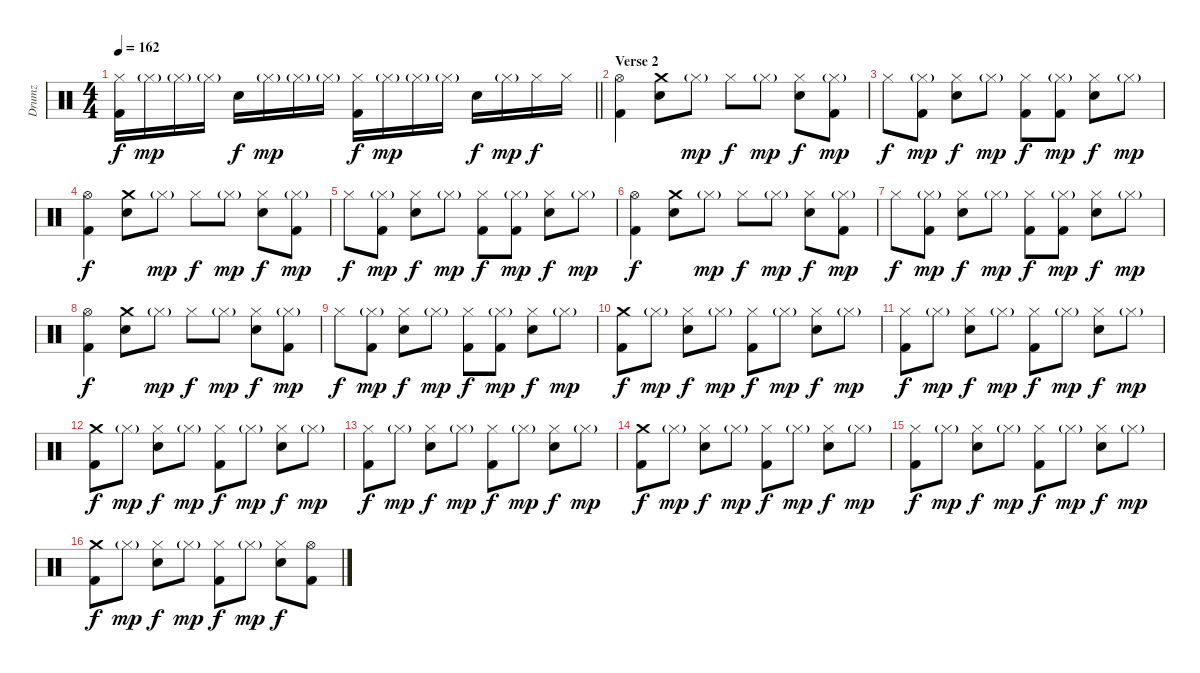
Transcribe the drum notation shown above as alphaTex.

\track ("Drumz" "Drumz") {instrument percussion}
\staff {score}
\articulation defaults
\ts (4 4)
\tempo 162
\clef neutral
\barLineRight lightlight
\ks c
("Hi-Hat (closed)" "Kick (hit) 2").16{dy f} "Hi-Hat (closed)"{g}.16{dy mp} "Hi-Hat (closed)"{g}.16 "Hi-Hat (closed)"{g}.16 "Electric Snare (hit)".16{dy f} "Hi-Hat (closed)"{g}.16{dy mp} "Hi-Hat (closed)"{g}.16 "Hi-Hat (closed)"{g}.16 ("Hi-Hat (closed)" "Kick (hit) 2").16{dy f} "Hi-Hat (closed)"{g}.16{dy mp} "Hi-Hat (closed)"{g}.16 "Hi-Hat (closed)"{g}.16 "Electric Snare (hit)".16{dy f} "Hi-Hat (closed)"{g}.16{dy mp} "Hi-Hat (closed)".16{dy f} "Hi-Hat (closed)".16 |
\section ("" "Verse 2")
("Hi-Hat (open)" "Kick (hit) 2").4 ("Crash medium (hit)" "Electric Snare (hit)").8 "Hi-Hat (closed)"{g}.8{dy mp} "Hi-Hat (closed)".8{dy f} "Hi-Hat (closed)"{g}.8{dy mp} ("Hi-Hat (closed)" "Electric Snare (hit)").8{dy f} ("Hi-Hat (closed)"{g} "Kick (hit) 2").8{dy mp} |
"Hi-Hat (closed)".8{dy f} ("Hi-Hat (closed)"{g} "Kick (hit) 2").8{dy mp} ("Hi-Hat (closed)" "Electric Snare (hit)").8{dy f} "Hi-Hat (closed)"{g}.8{dy mp} ("Hi-Hat (closed)" "Kick (hit) 2").8{dy f} ("Hi-Hat (closed)"{g} "Kick (hit) 2").8{dy mp} ("Hi-Hat (closed)" "Electric Snare (hit)").8{dy f} "Hi-Hat (closed)"{g}.8{dy mp} |
("Hi-Hat (open)" "Kick (hit) 2").4{dy f} ("Crash medium (hit)" "Electric Snare (hit)").8 "Hi-Hat (closed)"{g}.8{dy mp} "Hi-Hat (closed)".8{dy f} "Hi-Hat (closed)"{g}.8{dy mp} ("Hi-Hat (closed)" "Electric Snare (hit)").8{dy f} ("Hi-Hat (closed)"{g} "Kick (hit) 2").8{dy mp} |
"Hi-Hat (closed)".8{dy f} ("Hi-Hat (closed)"{g} "Kick (hit) 2").8{dy mp} ("Hi-Hat (closed)" "Electric Snare (hit)").8{dy f} "Hi-Hat (closed)"{g}.8{dy mp} ("Hi-Hat (closed)" "Kick (hit) 2").8{dy f} ("Hi-Hat (closed)"{g} "Kick (hit) 2").8{dy mp} ("Hi-Hat (closed)" "Electric Snare (hit)").8{dy f} "Hi-Hat (closed)"{g}.8{dy mp} |
("Hi-Hat (open)" "Kick (hit) 2").4{dy f} ("Crash medium (hit)" "Electric Snare (hit)").8 "Hi-Hat (closed)"{g}.8{dy mp} "Hi-Hat (closed)".8{dy f} "Hi-Hat (closed)"{g}.8{dy mp} ("Hi-Hat (closed)" "Electric Snare (hit)").8{dy f} ("Hi-Hat (closed)"{g} "Kick (hit) 2").8{dy mp} |
"Hi-Hat (closed)".8{dy f} ("Hi-Hat (closed)"{g} "Kick (hit) 2").8{dy mp} ("Hi-Hat (closed)" "Electric Snare (hit)").8{dy f} "Hi-Hat (closed)"{g}.8{dy mp} ("Hi-Hat (closed)" "Kick (hit) 2").8{dy f} ("Hi-Hat (closed)"{g} "Kick (hit) 2").8{dy mp} ("Hi-Hat (closed)" "Electric Snare (hit)").8{dy f} "Hi-Hat (closed)"{g}.8{dy mp} |
("Hi-Hat (open)" "Kick (hit) 2").4{dy f} ("Crash medium (hit)" "Electric Snare (hit)").8 "Hi-Hat (closed)"{g}.8{dy mp} "Hi-Hat (closed)".8{dy f} "Hi-Hat (closed)"{g}.8{dy mp} ("Hi-Hat (closed)" "Electric Snare (hit)").8{dy f} ("Hi-Hat (closed)"{g} "Kick (hit) 2").8{dy mp} |
"Hi-Hat (closed)".8{dy f} ("Hi-Hat (closed)"{g} "Kick (hit) 2").8{dy mp} ("Hi-Hat (closed)" "Electric Snare (hit)").8{dy f} "Hi-Hat (closed)"{g}.8{dy mp} ("Hi-Hat (closed)" "Kick (hit) 2").8{dy f} ("Hi-Hat (closed)"{g} "Kick (hit) 2").8{dy mp} ("Hi-Hat (closed)" "Electric Snare (hit)").8{dy f} "Hi-Hat (closed)"{g}.8{dy mp} |
("Crash medium (hit)" "Kick (hit) 2").8{dy f} "Hi-Hat (closed)"{g}.8{dy mp} ("Hi-Hat (closed)" "Electric Snare (hit)").8{dy f} "Hi-Hat (closed)"{g}.8{dy mp} ("Hi-Hat (closed)" "Kick (hit) 2").8{dy f} "Hi-Hat (closed)"{g}.8{dy mp} ("Hi-Hat (closed)" "Electric Snare (hit)").8{dy f} "Hi-Hat (closed)"{g}.8{dy mp} |
("Hi-Hat (closed)" "Kick (hit) 2").8{dy f} "Hi-Hat (closed)"{g}.8{dy mp} ("Hi-Hat (closed)" "Electric Snare (hit)").8{dy f} "Hi-Hat (closed)"{g}.8{dy mp} ("Hi-Hat (closed)" "Kick (hit) 2").8{dy f} "Hi-Hat (closed)"{g}.8{dy mp} ("Hi-Hat (closed)" "Electric Snare (hit)").8{dy f} "Hi-Hat (closed)"{g}.8{dy mp} |
("Crash medium (hit)" "Kick (hit) 2").8{dy f} "Hi-Hat (closed)"{g}.8{dy mp} ("Hi-Hat (closed)" "Electric Snare (hit)").8{dy f} "Hi-Hat (closed)"{g}.8{dy mp} ("Hi-Hat (closed)" "Kick (hit) 2").8{dy f} "Hi-Hat (closed)"{g}.8{dy mp} ("Hi-Hat (closed)" "Electric Snare (hit)").8{dy f} "Hi-Hat (closed)"{g}.8{dy mp} |
("Hi-Hat (closed)" "Kick (hit) 2").8{dy f} "Hi-Hat (closed)"{g}.8{dy mp} ("Hi-Hat (closed)" "Electric Snare (hit)").8{dy f} "Hi-Hat (closed)"{g}.8{dy mp} ("Hi-Hat (closed)" "Kick (hit) 2").8{dy f} "Hi-Hat (closed)"{g}.8{dy mp} ("Hi-Hat (closed)" "Electric Snare (hit)").8{dy f} "Hi-Hat (closed)"{g}.8{dy mp} |
("Crash medium (hit)" "Kick (hit) 2").8{dy f} "Hi-Hat (closed)"{g}.8{dy mp} ("Hi-Hat (closed)" "Electric Snare (hit)").8{dy f} "Hi-Hat (closed)"{g}.8{dy mp} ("Hi-Hat (closed)" "Kick (hit) 2").8{dy f} "Hi-Hat (closed)"{g}.8{dy mp} ("Hi-Hat (closed)" "Electric Snare (hit)").8{dy f} "Hi-Hat (closed)"{g}.8{dy mp} |
("Hi-Hat (closed)" "Kick (hit) 2").8{dy f} "Hi-Hat (closed)"{g}.8{dy mp} ("Hi-Hat (closed)" "Electric Snare (hit)").8{dy f} "Hi-Hat (closed)"{g}.8{dy mp} ("Hi-Hat (closed)" "Kick (hit) 2").8{dy f} "Hi-Hat (closed)"{g}.8{dy mp} ("Hi-Hat (closed)" "Electric Snare (hit)").8{dy f} "Hi-Hat (closed)"{g}.8{dy mp} |
("Crash medium (hit)" "Kick (hit) 2").8{dy f} "Hi-Hat (closed)"{g}.8{dy mp} ("Hi-Hat (closed)" "Electric Snare (hit)").8{dy f} "Hi-Hat (closed)"{g}.8{dy mp} ("Hi-Hat (closed)" "Kick (hit) 2").8{dy f} "Hi-Hat (closed)"{g}.8{dy mp} ("Hi-Hat (closed)" "Electric Snare (hit)").8{dy f} ("Hi-Hat (open)" "Kick (hit) 2").8
